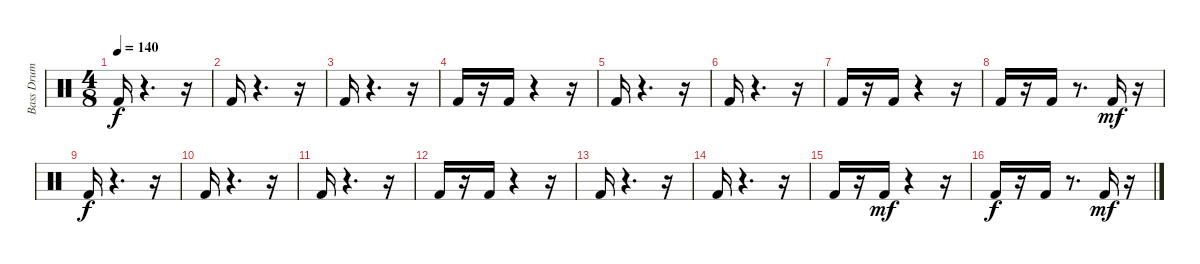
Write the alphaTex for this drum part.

\track ("Bass Drum" "Bass Drum") {instrument percussion}
\staff {score}
\articulation defaults
\ts (4 8)
\tempo 140
\clef neutral
\ks c "Kick (hit) 2".16{dy f}
r.4{d} r.16 |
"Kick (hit) 2".16 r.4{d} r.16 |
"Kick (hit) 2".16 r.4{d} r.16 |
"Kick (hit) 2".16 r.16 "Kick (hit) 2".16 r.4 r.16 |
"Kick (hit) 2".16 r.4{d} r.16 |
"Kick (hit) 2".16 r.4{d} r.16 |
"Kick (hit) 2".16 r.16 "Kick (hit) 2".16 r.4 r.16 |
"Kick (hit) 2".16 r.16 "Kick (hit) 2".16 r.8{d} "Kick (hit) 2".16{dy mf} r.16 |
"Kick (hit) 2".16{dy f} r.4{d} r.16 |
"Kick (hit) 2".16 r.4{d} r.16 |
"Kick (hit) 2".16 r.4{d} r.16 |
"Kick (hit) 2".16 r.16 "Kick (hit) 2".16 r.4 r.16 |
"Kick (hit) 2".16 r.4{d} r.16 |
"Kick (hit) 2".16 r.4{d} r.16 |
"Kick (hit) 2".16 r.16 "Kick (hit) 2".16{dy mf} r.4 r.16 |
"Kick (hit) 2".16{dy f} r.16 "Kick (hit) 2".16 r.8{d} "Kick (hit) 2".16{dy mf} r.16
